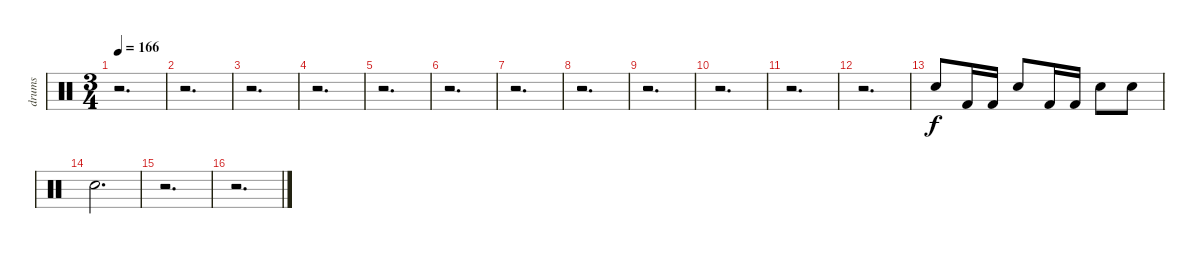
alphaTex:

\track ("drums" "drums") {instrument percussion}
\staff {score}
\articulation defaults
\ts (3 4)
\tempo 166
\clef neutral
\ks c
r.2{d dy f} |
r.2{d} |
r.2{d} |
r.2{d} |
r.2{d} |
r.2{d} |
r.2{d} |
r.2{d} |
r.2{d} |
r.2{d} |
r.2{d} |
r.2{d} |
"Electric Snare (hit)".8 "Kick (hit) 2".16 "Kick (hit) 2".16 "Electric Snare (hit)".8 "Kick (hit) 2".16 "Kick (hit) 2".16 "Electric Snare (hit)".8 "Electric Snare (hit)".8 |
"Electric Snare (hit)".2{d} |
r.2{d} |
r.2{d}
